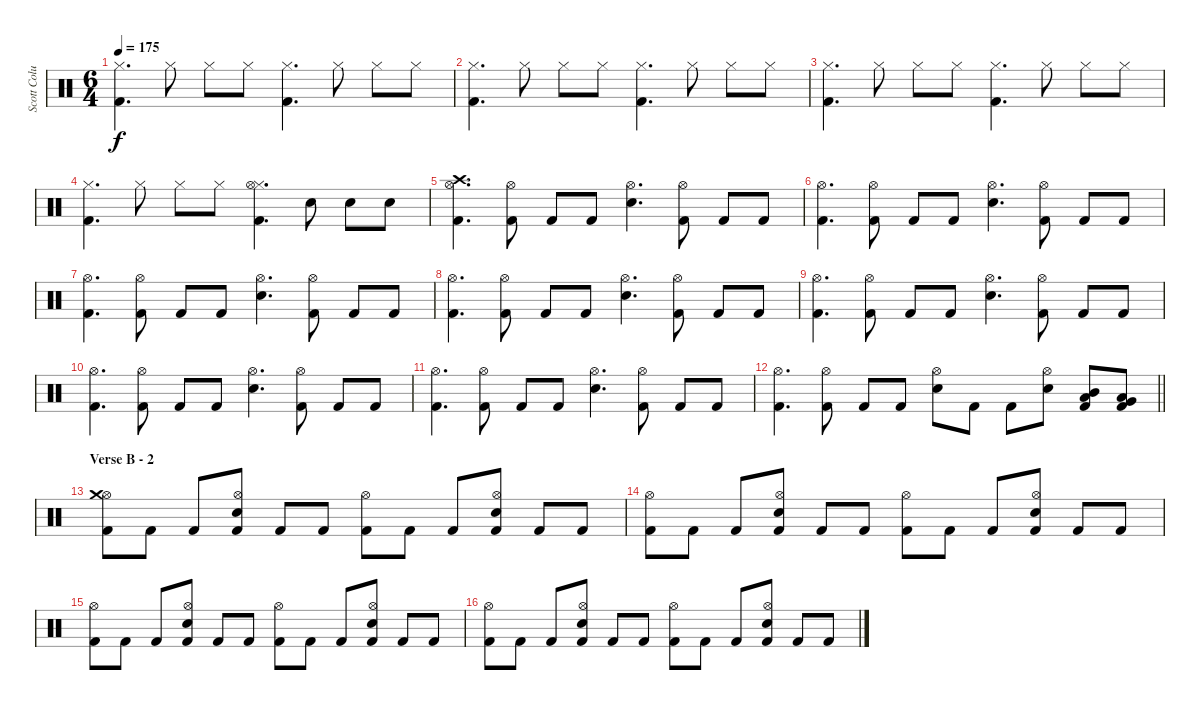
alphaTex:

\track ("Scott Columbus" "Scott Colu") {instrument percussion}
\staff {score}
\articulation defaults
\ts (6 4)
\tempo 175
\clef neutral
\ks c
("Kick (hit) 2" "Hi-Hat (closed)").4{d dy f} "Hi-Hat (closed)".8 "Hi-Hat (closed)".8 "Hi-Hat (closed)".8 ("Kick (hit) 2" "Hi-Hat (closed)").4{d} "Hi-Hat (closed)".8 "Hi-Hat (closed)".8 "Hi-Hat (closed)".8 |
("Kick (hit) 2" "Hi-Hat (closed)").4{d} "Hi-Hat (closed)".8 "Hi-Hat (closed)".8 "Hi-Hat (closed)".8 ("Kick (hit) 2" "Hi-Hat (closed)").4{d} "Hi-Hat (closed)".8 "Hi-Hat (closed)".8 "Hi-Hat (closed)".8 |
("Kick (hit) 2" "Hi-Hat (closed)").4{d} "Hi-Hat (closed)".8 "Hi-Hat (closed)".8 "Hi-Hat (closed)".8 ("Kick (hit) 2" "Hi-Hat (closed)").4{d} "Hi-Hat (closed)".8 "Hi-Hat (closed)".8 "Hi-Hat (closed)".8 |
("Kick (hit) 2" "Hi-Hat (closed)").4{d} "Hi-Hat (closed)".8 "Hi-Hat (closed)".8 "Hi-Hat (closed)".8 ("Kick (hit) 2" "Hi-Hat (closed)" "Hi-Hat (open)").4{d} "Snare (hit) 2".8 "Snare (hit) 2".8 "Snare (hit) 2".8 |
("Kick (hit) 2" "Hi-Hat (open)" "Crash high (hit)").4{d} ("Kick (hit) 2" "Hi-Hat (open)").8 "Kick (hit) 2".8 "Kick (hit) 2".8 ("Snare (hit) 2" "Hi-Hat (open)").4{d} ("Kick (hit) 2" "Hi-Hat (open)").8 "Kick (hit) 2".8 "Kick (hit) 2".8 |
("Kick (hit) 2" "Hi-Hat (open)").4{d} ("Kick (hit) 2" "Hi-Hat (open)").8 "Kick (hit) 2".8 "Kick (hit) 2".8 ("Snare (hit) 2" "Hi-Hat (open)").4{d} ("Kick (hit) 2" "Hi-Hat (open)").8 "Kick (hit) 2".8 "Kick (hit) 2".8 |
("Kick (hit) 2" "Hi-Hat (open)").4{d} ("Kick (hit) 2" "Hi-Hat (open)").8 "Kick (hit) 2".8 "Kick (hit) 2".8 ("Snare (hit) 2" "Hi-Hat (open)").4{d} ("Kick (hit) 2" "Hi-Hat (open)").8 "Kick (hit) 2".8 "Kick (hit) 2".8 |
("Kick (hit) 2" "Hi-Hat (open)").4{d} ("Kick (hit) 2" "Hi-Hat (open)").8 "Kick (hit) 2".8 "Kick (hit) 2".8 ("Snare (hit) 2" "Hi-Hat (open)").4{d} ("Kick (hit) 2" "Hi-Hat (open)").8 "Kick (hit) 2".8 "Kick (hit) 2".8 |
("Kick (hit) 2" "Hi-Hat (open)").4{d} ("Kick (hit) 2" "Hi-Hat (open)").8 "Kick (hit) 2".8 "Kick (hit) 2".8 ("Snare (hit) 2" "Hi-Hat (open)").4{d} ("Kick (hit) 2" "Hi-Hat (open)").8 "Kick (hit) 2".8 "Kick (hit) 2".8 |
("Kick (hit) 2" "Hi-Hat (open)").4{d} ("Kick (hit) 2" "Hi-Hat (open)").8 "Kick (hit) 2".8 "Kick (hit) 2".8 ("Snare (hit) 2" "Hi-Hat (open)").4{d} ("Kick (hit) 2" "Hi-Hat (open)").8 "Kick (hit) 2".8 "Kick (hit) 2".8 |
("Kick (hit) 2" "Hi-Hat (open)").4{d} ("Kick (hit) 2" "Hi-Hat (open)").8 "Kick (hit) 2".8 "Kick (hit) 2".8 ("Snare (hit) 2" "Hi-Hat (open)").4{d} ("Kick (hit) 2" "Hi-Hat (open)").8 "Kick (hit) 2".8 "Kick (hit) 2".8 |
\barLineRight lightlight
("Kick (hit) 2" "Hi-Hat (open)").4{d} ("Kick (hit) 2" "Hi-Hat (open)").8 "Kick (hit) 2".8 "Kick (hit) 2".8 ("Snare (hit) 2" "Hi-Hat (open)").8 "Kick (hit) 2".8 "Kick (hit) 2".8 ("Snare (hit) 2" "Hi-Hat (open)").8 ("Kick (hit) 2" "Mid Tom (hit)" "Low Tom (hit)").8 ("Kick (hit) 2" "Low Tom (hit)" "Very Low Tom (hit)").8 |
\section ("" "Verse B - 2")
("Kick (hit) 2" "Hi-Hat (open)" "Crash medium (hit)").8 "Kick (hit) 2".8 "Kick (hit) 2".8 ("Kick (hit) 2" "Snare (hit) 2" "Hi-Hat (open)").8 "Kick (hit) 2".8 "Kick (hit) 2".8 ("Kick (hit) 2" "Hi-Hat (open)").8 "Kick (hit) 2".8 "Kick (hit) 2".8 ("Kick (hit) 2" "Snare (hit) 2" "Hi-Hat (open)").8 "Kick (hit) 2".8 "Kick (hit) 2".8 |
("Kick (hit) 2" "Hi-Hat (open)").8 "Kick (hit) 2".8 "Kick (hit) 2".8 ("Kick (hit) 2" "Snare (hit) 2" "Hi-Hat (open)").8 "Kick (hit) 2".8 "Kick (hit) 2".8 ("Kick (hit) 2" "Hi-Hat (open)").8 "Kick (hit) 2".8 "Kick (hit) 2".8 ("Kick (hit) 2" "Snare (hit) 2" "Hi-Hat (open)").8 "Kick (hit) 2".8 "Kick (hit) 2".8 |
("Kick (hit) 2" "Hi-Hat (open)").8 "Kick (hit) 2".8 "Kick (hit) 2".8 ("Kick (hit) 2" "Snare (hit) 2" "Hi-Hat (open)").8 "Kick (hit) 2".8 "Kick (hit) 2".8 ("Kick (hit) 2" "Hi-Hat (open)").8 "Kick (hit) 2".8 "Kick (hit) 2".8 ("Kick (hit) 2" "Snare (hit) 2" "Hi-Hat (open)").8 "Kick (hit) 2".8 "Kick (hit) 2".8 |
("Kick (hit) 2" "Hi-Hat (open)").8 "Kick (hit) 2".8 "Kick (hit) 2".8 ("Kick (hit) 2" "Snare (hit) 2" "Hi-Hat (open)").8 "Kick (hit) 2".8 "Kick (hit) 2".8 ("Kick (hit) 2" "Hi-Hat (open)").8 "Kick (hit) 2".8 "Kick (hit) 2".8 ("Kick (hit) 2" "Snare (hit) 2" "Hi-Hat (open)").8 "Kick (hit) 2".8 "Kick (hit) 2".8
